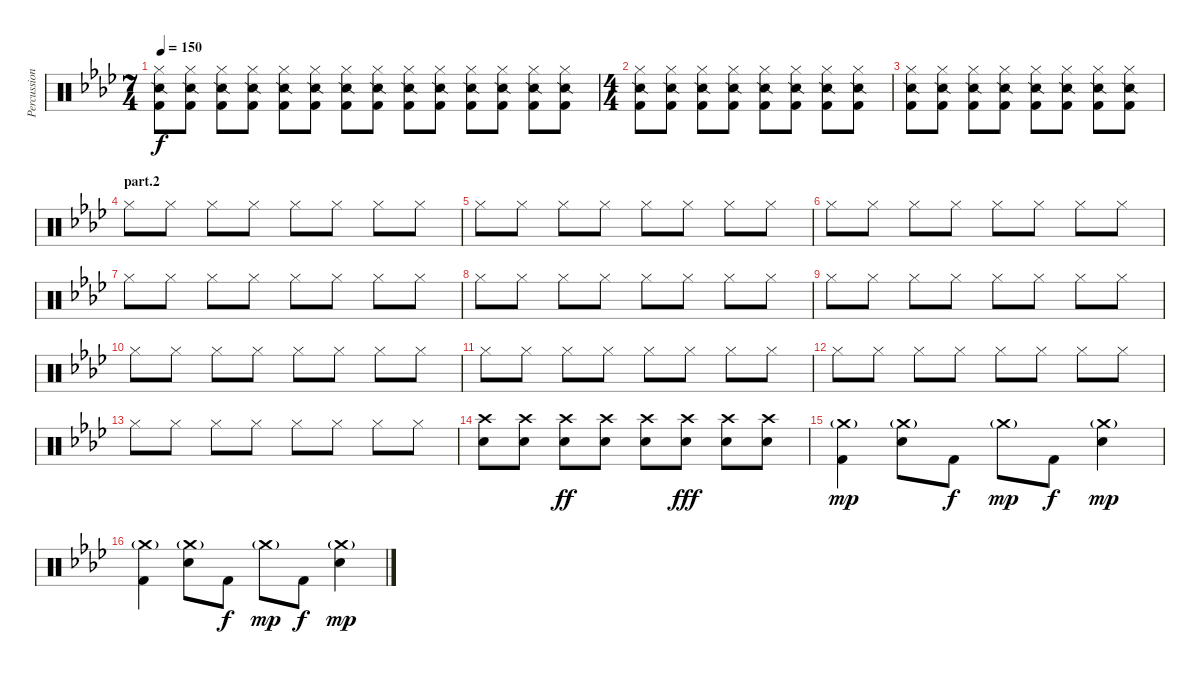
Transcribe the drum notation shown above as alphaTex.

\track ("Percussions 2" "Percussion") {instrument percussion}
\staff {score}
\articulation defaults
\ts (7 4)
\tempo 150
\clef neutral
\ks ab
("Hi-Hat (closed)" "Snare (side stick) 2" "Kick (hit) 2").8{dy f} ("Hi-Hat (closed)" "Snare (side stick) 2" "Kick (hit) 2").8 ("Hi-Hat (closed)" "Snare (side stick) 2" "Kick (hit) 2").8 ("Hi-Hat (closed)" "Snare (side stick) 2" "Kick (hit) 2").8 ("Hi-Hat (closed)" "Snare (side stick) 2" "Kick (hit) 2").8 ("Hi-Hat (closed)" "Snare (side stick) 2" "Kick (hit) 2").8 ("Hi-Hat (closed)" "Snare (side stick) 2" "Kick (hit) 2").8 ("Hi-Hat (closed)" "Snare (side stick) 2" "Kick (hit) 2").8 ("Hi-Hat (closed)" "Snare (side stick) 2" "Kick (hit) 2").8 ("Hi-Hat (closed)" "Snare (side stick) 2" "Kick (hit) 2").8 ("Hi-Hat (closed)" "Snare (side stick) 2" "Kick (hit) 2").8 ("Hi-Hat (closed)" "Snare (side stick) 2" "Kick (hit) 2").8 ("Hi-Hat (closed)" "Snare (side stick) 2" "Kick (hit) 2").8 ("Hi-Hat (closed)" "Snare (side stick) 2" "Kick (hit) 2").8 |
\ts (4 4)
("Hi-Hat (closed)" "Snare (side stick) 2" "Kick (hit) 2").8 ("Hi-Hat (closed)" "Snare (side stick) 2" "Kick (hit) 2").8 ("Hi-Hat (closed)" "Snare (side stick) 2" "Kick (hit) 2").8 ("Hi-Hat (closed)" "Snare (side stick) 2" "Kick (hit) 2").8 ("Hi-Hat (closed)" "Snare (side stick) 2" "Kick (hit) 2").8 ("Hi-Hat (closed)" "Snare (side stick) 2" "Kick (hit) 2").8 ("Hi-Hat (closed)" "Snare (side stick) 2" "Kick (hit) 2").8 ("Hi-Hat (closed)" "Snare (side stick) 2" "Kick (hit) 2").8 |
("Hi-Hat (closed)" "Snare (side stick) 2" "Kick (hit) 2").8 ("Hi-Hat (closed)" "Snare (side stick) 2" "Kick (hit) 2").8 ("Hi-Hat (closed)" "Snare (side stick) 2" "Kick (hit) 2").8 ("Hi-Hat (closed)" "Snare (side stick) 2" "Kick (hit) 2").8 ("Hi-Hat (closed)" "Snare (side stick) 2" "Kick (hit) 2").8 ("Hi-Hat (closed)" "Snare (side stick) 2" "Kick (hit) 2").8 ("Hi-Hat (closed)" "Snare (side stick) 2" "Kick (hit) 2").8 ("Hi-Hat (closed)" "Snare (side stick) 2" "Kick (hit) 2").8 |
\section ("" "part.2")
"Hi-Hat (closed)".8 "Hi-Hat (closed)".8 "Hi-Hat (closed)".8 "Hi-Hat (closed)".8 "Hi-Hat (closed)".8 "Hi-Hat (closed)".8 "Hi-Hat (closed)".8 "Hi-Hat (closed)".8 |
"Hi-Hat (closed)".8 "Hi-Hat (closed)".8 "Hi-Hat (closed)".8 "Hi-Hat (closed)".8 "Hi-Hat (closed)".8 "Hi-Hat (closed)".8 "Hi-Hat (closed)".8 "Hi-Hat (closed)".8 |
"Hi-Hat (closed)".8 "Hi-Hat (closed)".8 "Hi-Hat (closed)".8 "Hi-Hat (closed)".8 "Hi-Hat (closed)".8 "Hi-Hat (closed)".8 "Hi-Hat (closed)".8 "Hi-Hat (closed)".8 |
"Hi-Hat (closed)".8 "Hi-Hat (closed)".8 "Hi-Hat (closed)".8 "Hi-Hat (closed)".8 "Hi-Hat (closed)".8 "Hi-Hat (closed)".8 "Hi-Hat (closed)".8 "Hi-Hat (closed)".8 |
"Hi-Hat (closed)".8 "Hi-Hat (closed)".8 "Hi-Hat (closed)".8 "Hi-Hat (closed)".8 "Hi-Hat (closed)".8 "Hi-Hat (closed)".8 "Hi-Hat (closed)".8 "Hi-Hat (closed)".8 |
"Hi-Hat (closed)".8 "Hi-Hat (closed)".8 "Hi-Hat (closed)".8 "Hi-Hat (closed)".8 "Hi-Hat (closed)".8 "Hi-Hat (closed)".8 "Hi-Hat (closed)".8 "Hi-Hat (closed)".8 |
"Hi-Hat (closed)".8 "Hi-Hat (closed)".8 "Hi-Hat (closed)".8 "Hi-Hat (closed)".8 "Hi-Hat (closed)".8 "Hi-Hat (closed)".8 "Hi-Hat (closed)".8 "Hi-Hat (closed)".8 |
"Hi-Hat (closed)".8 "Hi-Hat (closed)".8 "Hi-Hat (closed)".8 "Hi-Hat (closed)".8 "Hi-Hat (closed)".8 "Hi-Hat (closed)".8 "Hi-Hat (closed)".8 "Hi-Hat (closed)".8 |
"Hi-Hat (closed)".8 "Hi-Hat (closed)".8 "Hi-Hat (closed)".8 "Hi-Hat (closed)".8 "Hi-Hat (closed)".8 "Hi-Hat (closed)".8 "Hi-Hat (closed)".8 "Hi-Hat (closed)".8 |
"Hi-Hat (closed)".8 "Hi-Hat (closed)".8 "Hi-Hat (closed)".8 "Hi-Hat (closed)".8 "Hi-Hat (closed)".8 "Hi-Hat (closed)".8 "Hi-Hat (closed)".8 "Hi-Hat (closed)".8 |
("Crash high (hit)" "Snare (hit) 2").8{volume 16} ("Crash high (hit)" "Snare (hit) 2").8 ("Crash high (hit)" "Snare (hit) 2").8{dy ff} ("Crash high (hit)" "Snare (hit) 2").8 ("Crash high (hit)" "Snare (hit) 2").8 ("Crash high (hit)" "Snare (hit) 2").8{dy fff} ("Crash high (hit)" "Snare (hit) 2").8 ("Crash high (hit)" "Snare (hit) 2").8 |
("Crash medium (hit)"{g} "Kick (hit) 2").4{dy mp volume 16} ("Crash medium (hit)"{g} "Snare (hit) 2").8 "Kick (hit) 2".8{dy f} "Crash medium (hit)"{g}.8{dy mp} "Kick (hit) 2".8{dy f} ("Crash medium (hit)"{g} "Snare (hit) 2").4{dy mp} |
("Crash medium (hit)"{g} "Kick (hit) 2").4 ("Crash medium (hit)"{g} "Snare (hit) 2").8 "Kick (hit) 2".8{dy f} "Crash medium (hit)"{g}.8{dy mp} "Kick (hit) 2".8{dy f} ("Crash medium (hit)"{g} "Snare (hit) 2").4{dy mp}
